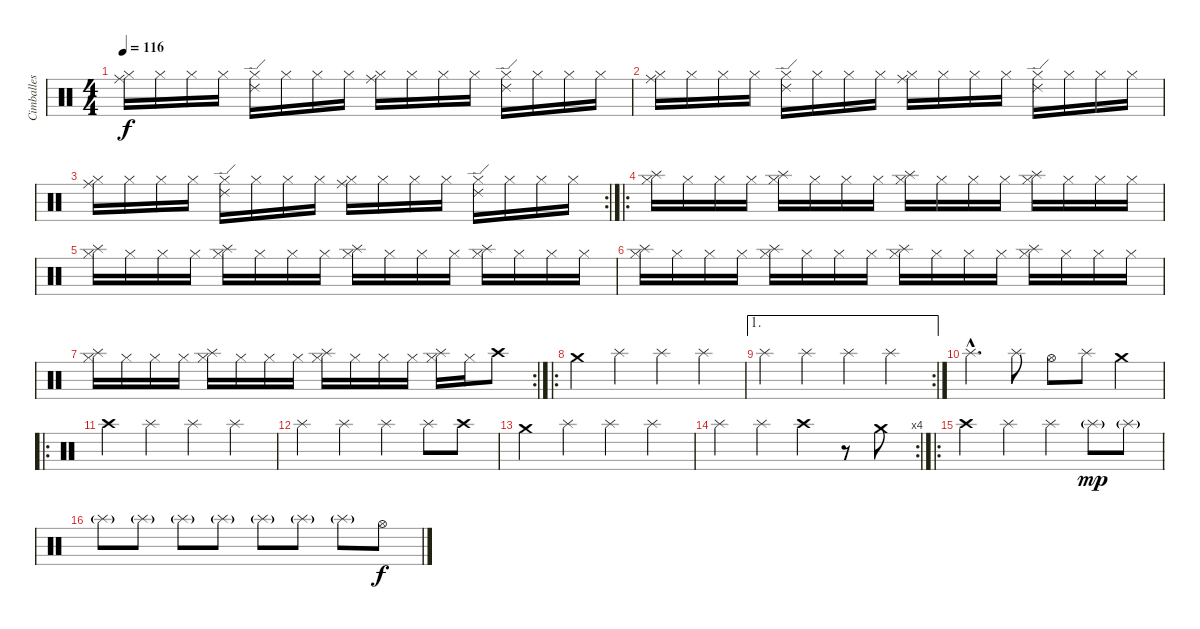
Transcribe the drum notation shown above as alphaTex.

\track ("Cimballes" "Cimballes") {instrument percussion}
\staff {score}
\articulation defaults
\ts (4 4)
\tempo 116
\clef neutral
\ks c
("Ride (middle)" "Hi-Hat (closed)").16{dy f} "Hi-Hat (closed)".16 "Hi-Hat (closed)".16 "Hi-Hat (closed)".16 ("Ride (edge) 2" "Hi-Hat (closed)").16 "Hi-Hat (closed)".16 "Hi-Hat (closed)".16 "Hi-Hat (closed)".16 ("Ride (middle)" "Hi-Hat (closed)").16 "Hi-Hat (closed)".16 "Hi-Hat (closed)".16 "Hi-Hat (closed)".16 ("Ride (edge) 2" "Hi-Hat (closed)").16 "Hi-Hat (closed)".16 "Hi-Hat (closed)".16 "Hi-Hat (closed)".16 |
("Ride (middle)" "Hi-Hat (closed)").16 "Hi-Hat (closed)".16 "Hi-Hat (closed)".16 "Hi-Hat (closed)".16 ("Ride (edge) 2" "Hi-Hat (closed)").16 "Hi-Hat (closed)".16 "Hi-Hat (closed)".16 "Hi-Hat (closed)".16 ("Ride (middle)" "Hi-Hat (closed)").16 "Hi-Hat (closed)".16 "Hi-Hat (closed)".16 "Hi-Hat (closed)".16 ("Ride (edge) 2" "Hi-Hat (closed)").16 "Hi-Hat (closed)".16 "Hi-Hat (closed)".16 "Hi-Hat (closed)".16 |
\rc 2
("Ride (middle)" "Hi-Hat (closed)").16 "Hi-Hat (closed)".16 "Hi-Hat (closed)".16 "Hi-Hat (closed)".16 ("Ride (edge) 2" "Hi-Hat (closed)").16 "Hi-Hat (closed)".16 "Hi-Hat (closed)".16 "Hi-Hat (closed)".16 ("Ride (middle)" "Hi-Hat (closed)").16 "Hi-Hat (closed)".16 "Hi-Hat (closed)".16 "Hi-Hat (closed)".16 ("Ride (edge) 2" "Hi-Hat (closed)").16 "Hi-Hat (closed)".16 "Hi-Hat (closed)".16 "Hi-Hat (closed)".16 |
\ro
("Splash (hit)" "Hi-Hat (closed)").16 "Hi-Hat (closed)".16 "Hi-Hat (closed)".16 "Hi-Hat (closed)".16 ("Splash (hit)" "Hi-Hat (closed)").16 "Hi-Hat (closed)".16 "Hi-Hat (closed)".16 "Hi-Hat (closed)".16 ("Splash (hit)" "Hi-Hat (closed)").16 "Hi-Hat (closed)".16 "Hi-Hat (closed)".16 "Hi-Hat (closed)".16 ("Splash (hit)" "Hi-Hat (closed)").16 "Hi-Hat (closed)".16 "Hi-Hat (closed)".16 "Hi-Hat (closed)".16 |
("Splash (hit)" "Hi-Hat (closed)").16 "Hi-Hat (closed)".16 "Hi-Hat (closed)".16 "Hi-Hat (closed)".16 ("Splash (hit)" "Hi-Hat (closed)").16 "Hi-Hat (closed)".16 "Hi-Hat (closed)".16 "Hi-Hat (closed)".16 ("Splash (hit)" "Hi-Hat (closed)").16 "Hi-Hat (closed)".16 "Hi-Hat (closed)".16 "Hi-Hat (closed)".16 ("Splash (hit)" "Hi-Hat (closed)").16 "Hi-Hat (closed)".16 "Hi-Hat (closed)".16 "Hi-Hat (closed)".16 |
("Splash (hit)" "Hi-Hat (closed)").16 "Hi-Hat (closed)".16 "Hi-Hat (closed)".16 "Hi-Hat (closed)".16 ("Splash (hit)" "Hi-Hat (closed)").16 "Hi-Hat (closed)".16 "Hi-Hat (closed)".16 "Hi-Hat (closed)".16 ("Splash (hit)" "Hi-Hat (closed)").16 "Hi-Hat (closed)".16 "Hi-Hat (closed)".16 "Hi-Hat (closed)".16 ("Splash (hit)" "Hi-Hat (closed)").16 "Hi-Hat (closed)".16 "Hi-Hat (closed)".16 "Hi-Hat (closed)".16 |
\rc 2
("Splash (hit)" "Hi-Hat (closed)").16 "Hi-Hat (closed)".16 "Hi-Hat (closed)".16 "Hi-Hat (closed)".16 ("Splash (hit)" "Hi-Hat (closed)").16 "Hi-Hat (closed)".16 "Hi-Hat (closed)".16 "Hi-Hat (closed)".16 ("Splash (hit)" "Hi-Hat (closed)").16 "Hi-Hat (closed)".16 "Hi-Hat (closed)".16 "Hi-Hat (closed)".16 ("Splash (hit)" "Hi-Hat (closed)").16 "Hi-Hat (closed)".16 "Crash high (hit)".8 |
\ro "Crash medium (hit)".4 "Splash (hit)".4 "Splash (hit)".4 "Splash (hit)".4
|
\ae 1
\rc 2 "Splash (hit)".4 "Splash (hit)".4 "Splash (hit)".4 "Splash (hit)".4
|
"Splash (hit)"{hac}.4{d} "Splash (hit)".8 "Hi-Hat (open)".8 "Splash (hit)".8 "Crash medium (hit)".4 |
\ro "Crash high (hit)".4 "Splash (hit)".4 "Splash (hit)".4 "Splash (hit)".4
|
"Splash (hit)".4 "Splash (hit)".4 "Splash (hit)".4 "Splash (hit)".8 "Crash high (hit)".8 |
"Crash medium (hit)".4 "Splash (hit)".4 "Splash (hit)".4 "Splash (hit)".4 |
\rc 4 "Splash (hit)".4 "Splash (hit)".4 "Crash high (hit)".4
r.8 "Crash medium (hit)".8 |
\ro "Crash high (hit)".4 "Splash (hit)".4 "Splash (hit)".4 "Splash (hit)"{g}.8{dy mp} "Splash (hit)"{g}.8
|
"Splash (hit)"{g}.8 "Splash (hit)"{g}.8 "Splash (hit)"{g}.8 "Splash (hit)"{g}.8 "Splash (hit)"{g}.8 "Splash (hit)"{g}.8 "Splash (hit)"{g}.8 "Hi-Hat (open)".8{dy f}
